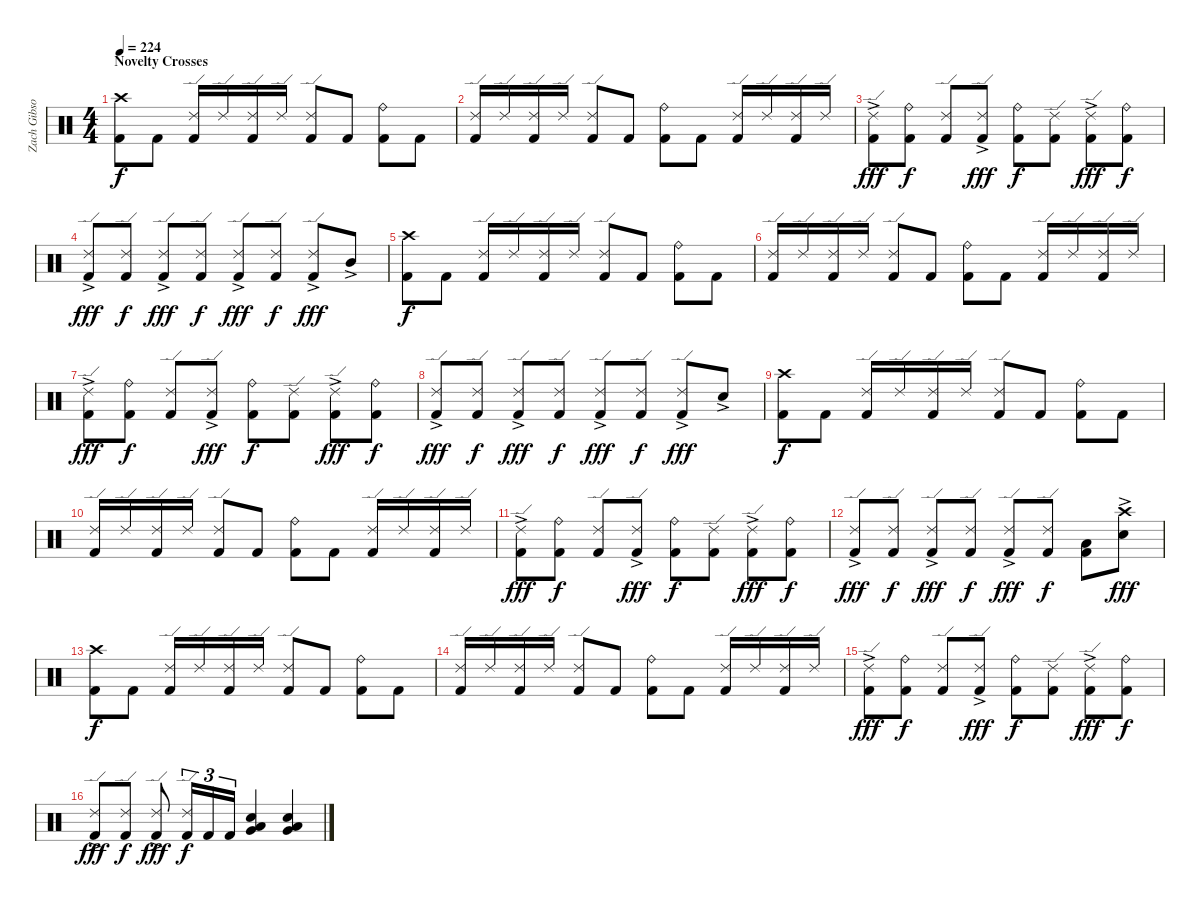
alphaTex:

\track ("Zach Gibson (Drums)" "Zach Gibso") {instrument percussion}
\staff {score}
\articulation defaults
\ts (4 4)
\section ("" "Novelty Crosses")
\tempo 224
\clef neutral
\ks c
("Crash high (hit)" "Kick (hit) 2").8{dy f} "Kick (hit) 2".8 ("Ride (edge) 2" "Kick (hit) 2").16 "Ride (edge) 2".16 ("Ride (edge) 2" "Kick (hit) 2").16 "Ride (edge) 2".16 ("Ride (edge) 2" "Kick (hit) 2").8 "Kick (hit) 2".8 ("Ride (bell)" "Kick (hit) 2").8 "Kick (hit) 2".8 |
("Ride (edge) 2" "Kick (hit) 2").16 "Ride (edge) 2".16 ("Ride (edge) 2" "Kick (hit) 2").16 "Ride (edge) 2".16 ("Ride (edge) 2" "Kick (hit) 2").8 "Kick (hit) 2".8 ("Ride (bell)" "Kick (hit) 2").8 "Kick (hit) 2".8 ("Ride (edge) 2" "Kick (hit) 2").16 "Ride (edge) 2".16 ("Ride (edge) 2" "Kick (hit) 2").16 "Ride (edge) 2".16 |
("Ride (edge) 2"{ac} "Kick (hit) 2").8{dy fff} ("Ride (bell)" "Kick (hit) 2").8{dy f} ("Ride (edge) 2" "Kick (hit) 2").8 ("Ride (edge) 2"{ac} "Kick (hit) 2").8{dy fff} ("Ride (bell)" "Kick (hit) 2").8{dy f} ("Ride (edge) 2" "Kick (hit) 2").8 ("Ride (edge) 2"{ac} "Kick (hit) 2").8{dy fff} ("Ride (bell)" "Kick (hit) 2").8{dy f} |
("Ride (edge) 2"{ac} "Kick (hit) 2").8{dy fff} ("Ride (edge) 2" "Kick (hit) 2").8{dy f} ("Ride (edge) 2"{ac} "Kick (hit) 2").8{dy fff} ("Ride (edge) 2" "Kick (hit) 2").8{dy f} ("Ride (edge) 2"{ac} "Kick (hit) 2").8{dy fff} ("Ride (edge) 2" "Kick (hit) 2").8{dy f} ("Ride (edge) 2"{ac} "Kick (hit) 2").8{dy fff} "Mid Tom (hit)"{ac}.8 |
("Crash high (hit)" "Kick (hit) 2").8{dy f} "Kick (hit) 2".8 ("Ride (edge) 2" "Kick (hit) 2").16 "Ride (edge) 2".16 ("Ride (edge) 2" "Kick (hit) 2").16 "Ride (edge) 2".16 ("Ride (edge) 2" "Kick (hit) 2").8 "Kick (hit) 2".8 ("Ride (bell)" "Kick (hit) 2").8 "Kick (hit) 2".8 |
("Ride (edge) 2" "Kick (hit) 2").16 "Ride (edge) 2".16 ("Ride (edge) 2" "Kick (hit) 2").16 "Ride (edge) 2".16 ("Ride (edge) 2" "Kick (hit) 2").8 "Kick (hit) 2".8 ("Ride (bell)" "Kick (hit) 2").8 "Kick (hit) 2".8 ("Ride (edge) 2" "Kick (hit) 2").16 "Ride (edge) 2".16 ("Ride (edge) 2" "Kick (hit) 2").16 "Ride (edge) 2".16 |
("Ride (edge) 2"{ac} "Kick (hit) 2").8{dy fff} ("Ride (bell)" "Kick (hit) 2").8{dy f} ("Ride (edge) 2" "Kick (hit) 2").8 ("Ride (edge) 2"{ac} "Kick (hit) 2").8{dy fff} ("Ride (bell)" "Kick (hit) 2").8{dy f} ("Ride (edge) 2" "Kick (hit) 2").8 ("Ride (edge) 2"{ac} "Kick (hit) 2").8{dy fff} ("Ride (bell)" "Kick (hit) 2").8{dy f} |
("Ride (edge) 2"{ac} "Kick (hit) 2").8{dy fff} ("Ride (edge) 2" "Kick (hit) 2").8{dy f} ("Ride (edge) 2"{ac} "Kick (hit) 2").8{dy fff} ("Ride (edge) 2" "Kick (hit) 2").8{dy f} ("Ride (edge) 2"{ac} "Kick (hit) 2").8{dy fff} ("Ride (edge) 2" "Kick (hit) 2").8{dy f} ("Ride (edge) 2"{ac} "Kick (hit) 2").8{dy fff} "Snare (hit) 2"{ac}.8 |
("Crash high (hit)" "Kick (hit) 2").8{dy f} "Kick (hit) 2".8 ("Ride (edge) 2" "Kick (hit) 2").16 "Ride (edge) 2".16 ("Ride (edge) 2" "Kick (hit) 2").16 "Ride (edge) 2".16 ("Ride (edge) 2" "Kick (hit) 2").8 "Kick (hit) 2".8 ("Ride (bell)" "Kick (hit) 2").8 "Kick (hit) 2".8 |
("Ride (edge) 2" "Kick (hit) 2").16 "Ride (edge) 2".16 ("Ride (edge) 2" "Kick (hit) 2").16 "Ride (edge) 2".16 ("Ride (edge) 2" "Kick (hit) 2").8 "Kick (hit) 2".8 ("Ride (bell)" "Kick (hit) 2").8 "Kick (hit) 2".8 ("Ride (edge) 2" "Kick (hit) 2").16 "Ride (edge) 2".16 ("Ride (edge) 2" "Kick (hit) 2").16 "Ride (edge) 2".16 |
("Ride (edge) 2"{ac} "Kick (hit) 2").8{dy fff} ("Ride (bell)" "Kick (hit) 2").8{dy f} ("Ride (edge) 2" "Kick (hit) 2").8 ("Ride (edge) 2"{ac} "Kick (hit) 2").8{dy fff} ("Ride (bell)" "Kick (hit) 2").8{dy f} ("Ride (edge) 2" "Kick (hit) 2").8 ("Ride (edge) 2"{ac} "Kick (hit) 2").8{dy fff} ("Ride (bell)" "Kick (hit) 2").8{dy f} |
("Ride (edge) 2"{ac} "Kick (hit) 2").8{dy fff} ("Ride (edge) 2" "Kick (hit) 2").8{dy f} ("Ride (edge) 2"{ac} "Kick (hit) 2").8{dy fff} ("Ride (edge) 2" "Kick (hit) 2").8{dy f} ("Ride (edge) 2"{ac} "Kick (hit) 2").8{dy fff} ("Ride (edge) 2" "Kick (hit) 2").8{dy f} ("Low Tom (hit)" "Kick (hit) 2").8 ("Crash high (hit)"{ac} "Snare (hit) 2").8{dy fff} |
("Crash high (hit)" "Kick (hit) 2").8{dy f} "Kick (hit) 2".8 ("Ride (edge) 2" "Kick (hit) 2").16 "Ride (edge) 2".16 ("Ride (edge) 2" "Kick (hit) 2").16 "Ride (edge) 2".16 ("Ride (edge) 2" "Kick (hit) 2").8 "Kick (hit) 2".8 ("Ride (bell)" "Kick (hit) 2").8 "Kick (hit) 2".8 |
("Ride (edge) 2" "Kick (hit) 2").16 "Ride (edge) 2".16 ("Ride (edge) 2" "Kick (hit) 2").16 "Ride (edge) 2".16 ("Ride (edge) 2" "Kick (hit) 2").8 "Kick (hit) 2".8 ("Ride (bell)" "Kick (hit) 2").8 "Kick (hit) 2".8 ("Ride (edge) 2" "Kick (hit) 2").16 "Ride (edge) 2".16 ("Ride (edge) 2" "Kick (hit) 2").16 "Ride (edge) 2".16 |
("Ride (edge) 2"{ac} "Kick (hit) 2").8{dy fff} ("Ride (bell)" "Kick (hit) 2").8{dy f} ("Ride (edge) 2" "Kick (hit) 2").8 ("Ride (edge) 2"{ac} "Kick (hit) 2").8{dy fff} ("Ride (bell)" "Kick (hit) 2").8{dy f} ("Ride (edge) 2" "Kick (hit) 2").8 ("Ride (edge) 2"{ac} "Kick (hit) 2").8{dy fff} ("Ride (bell)" "Kick (hit) 2").8{dy f} |
("Ride (edge) 2"{ac} "Kick (hit) 2").8{dy fff} ("Ride (edge) 2" "Kick (hit) 2").8{dy f} ("Ride (edge) 2"{ac} "Kick (hit) 2").8{dy fff} ("Ride (edge) 2" "Kick (hit) 2").16{tu (3 2) dy f} "Kick (hit) 2".16{tu (3 2)} "Kick (hit) 2".16{tu (3 2)} ("Low Floor Tom (hit)" "Very Low Tom (hit)" "Snare (hit) 2").4 ("Very Low Tom (hit)" "Low Floor Tom (hit)" "Snare (hit) 2").4
